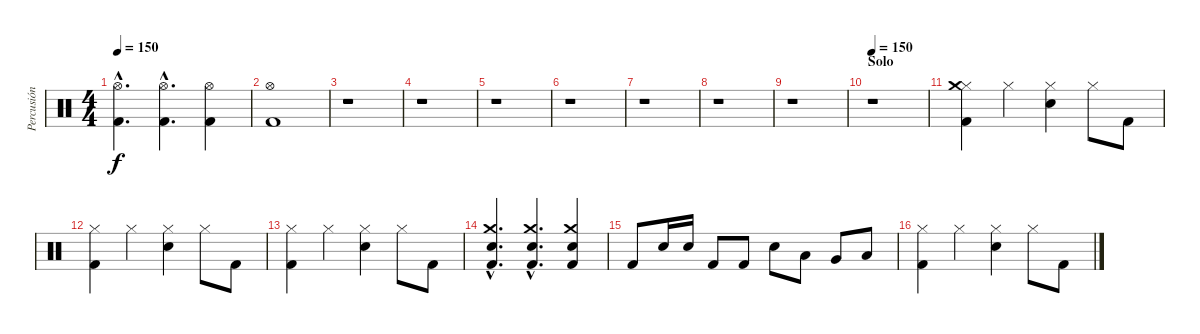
\track ("Percusión" "Percusión") {instrument percussion}
\staff {score}
\articulation defaults
\ts (4 4)
\tempo 150
\clef neutral
\ks c
("Hi-Hat (open)"{hac} "Kick (hit) 2"{hac}).4{d dy f} ("Hi-Hat (open)"{hac} "Kick (hit) 2"{hac}).4{d} ("Hi-Hat (open)" "Kick (hit) 2").4 |
\section ("" "")
("Hi-Hat (open)" "Kick (hit) 2").1 |
r.1 |
r.1 |
r.1 |
r.1 |
r.1 |
r.1 |
r.1 |
\section ("" "Solo")
\tempo 150
r.1 |
("Hi-Hat (closed)" "Crash medium (hit)" "Kick (hit) 2").4 "Hi-Hat (closed)".4 ("Hi-Hat (closed)" "Snare (hit) 2").4 "Hi-Hat (closed)".8 "Kick (hit) 2".8 |
("Hi-Hat (closed)" "Kick (hit) 2").4 "Hi-Hat (closed)".4 ("Hi-Hat (closed)" "Snare (hit) 2").4 "Hi-Hat (closed)".8 "Kick (hit) 2".8 |
("Hi-Hat (closed)" "Kick (hit) 2").4 "Hi-Hat (closed)".4 ("Hi-Hat (closed)" "Snare (hit) 2").4 "Hi-Hat (closed)".8 "Kick (hit) 2".8 |
("Snare (hit) 2"{hac} "Crash medium (hit)"{hac} "Kick (hit) 2"{hac}).4{d} ("Snare (hit) 2"{hac} "Crash medium (hit)"{hac} "Kick (hit) 2"{hac}).4{d} ("Snare (hit) 2" "Crash medium (hit)" "Kick (hit) 2").4 |
"Kick (hit) 2".8 "Snare (hit) 2".16 "Snare (hit) 2".16 "Kick (hit) 2".8 "Kick (hit) 2".8 "Snare (hit) 2".8 "Low Tom (hit)".8 "Very Low Tom (hit)".8 "Low Floor Tom (hit)".8 |
("Hi-Hat (closed)" "Kick (hit) 2").4 "Hi-Hat (closed)".4 ("Hi-Hat (closed)" "Snare (hit) 2").4 "Hi-Hat (closed)".8 "Kick (hit) 2".8
